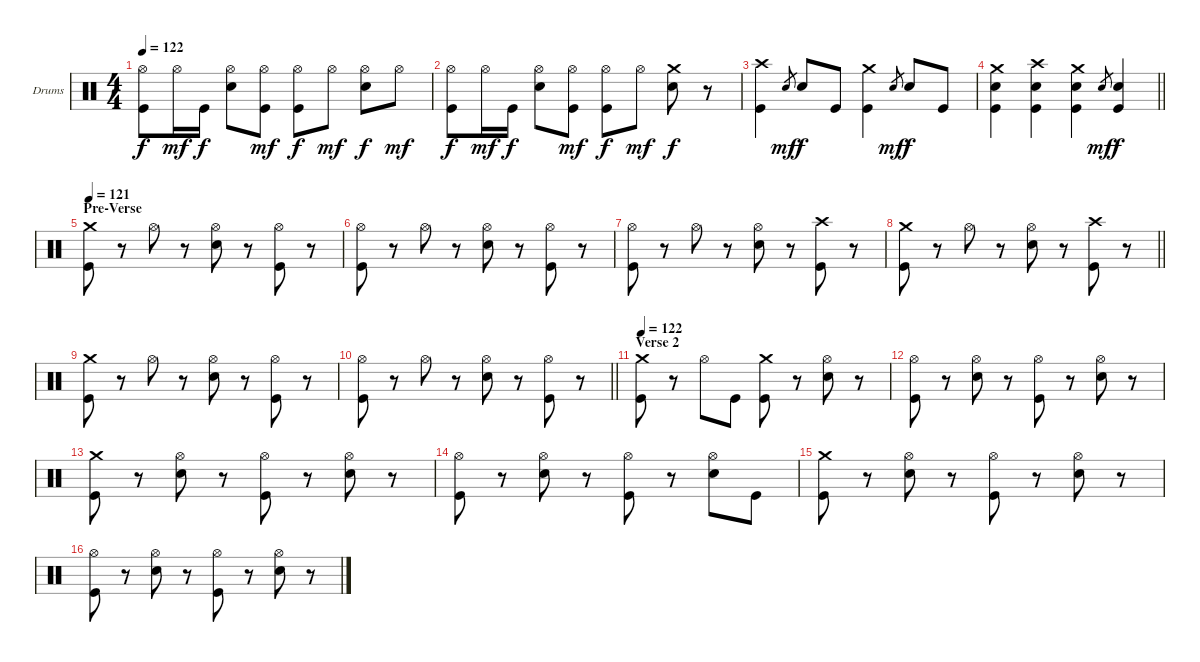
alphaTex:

\bracketExtendMode groupsimilarinstruments
\firstSystemTrackNameOrientation horizontal
\otherSystemsTrackNameOrientation horizontal
\track ("Drumkit" "Drums") {instrument percussion}
\staff {score}
\articulation defaults
\ts (4 4)
\tempo 122
\clef neutral
\ks c
("Hi-Hat (open)" "Kick (hit)").8{dy f} "Hi-Hat (open)".16{dy mf} "Kick (hit)".16{dy f} ("Hi-Hat (open)" "Snare (hit) 2").8 ("Hi-Hat (open)" "Kick (hit)").8{dy mf} ("Hi-Hat (open)" "Kick (hit)").8{dy f} "Hi-Hat (open)".8{dy mf} ("Hi-Hat (open)" "Snare (hit) 2").8{dy f} "Hi-Hat (open)".8{dy mf} |
("Hi-Hat (open)" "Kick (hit)").8{dy f} "Hi-Hat (open)".16{dy mf} "Kick (hit)".16{dy f} ("Hi-Hat (open)" "Snare (hit) 2").8 ("Hi-Hat (open)" "Kick (hit)").8{dy mf} ("Hi-Hat (open)" "Kick (hit)").8{dy f} "Hi-Hat (open)".8{dy mf} ("Crash medium (hit)" "Snare (hit) 2").8{dy f} r.8 |
("Crash high (hit)" "Kick (hit)").4 "Snare (hit) 2".8{gr dy mf} "Snare (hit) 2".8{dy f} "Kick (hit)".8 ("Crash medium (hit)" "Kick (hit)").4 "Snare (hit) 2".8{gr dy mf} "Snare (hit) 2".8{dy f} "Kick (hit)".8 |
\barLineRight lightlight
("Crash medium (hit)" "Snare (hit) 2" "Kick (hit)").4 ("Crash high (hit)" "Snare (hit) 2" "Kick (hit)").4 ("Crash medium (hit)" "Snare (hit) 2" "Kick (hit)").4 "Snare (hit) 2".8{gr dy mf} ("Snare (hit) 2" "Kick (hit)").4{dy f} |
\section ("" "Pre-Verse")
\tempo 121
("Crash medium (hit)" "Kick (hit)").8 r.8 "Hi-Hat (open)".8 r.8 ("Hi-Hat (open)" "Snare (hit) 2").8 r.8 ("Hi-Hat (open)" "Kick (hit)").8 r.8 |
("Hi-Hat (open)" "Kick (hit)").8 r.8 "Hi-Hat (open)".8 r.8 ("Hi-Hat (open)" "Snare (hit) 2").8 r.8 ("Hi-Hat (open)" "Kick (hit)").8 r.8 |
("Hi-Hat (open)" "Kick (hit)").8 r.8 "Hi-Hat (open)".8 r.8 ("Hi-Hat (open)" "Snare (hit) 2").8 r.8 ("Crash high (hit)" "Kick (hit)").8 r.8 |
\barLineRight lightlight
("Crash medium (hit)" "Kick (hit)").8 r.8 "Hi-Hat (open)".8 r.8 ("Hi-Hat (open)" "Snare (hit) 2").8 r.8 ("Crash high (hit)" "Kick (hit)").8 r.8 |
("Crash medium (hit)" "Kick (hit)").8 r.8 "Hi-Hat (open)".8 r.8 ("Hi-Hat (open)" "Snare (hit) 2").8 r.8 ("Hi-Hat (open)" "Kick (hit)").8 r.8 |
\barLineRight lightlight
("Hi-Hat (open)" "Kick (hit)").8 r.8 "Hi-Hat (open)".8 r.8 ("Hi-Hat (open)" "Snare (hit) 2").8 r.8 ("Hi-Hat (open)" "Kick (hit)").8 r.8 |
\section ("" "Verse 2")
\tempo 122
("Crash medium (hit)" "Kick (hit)").8 r.8 "Hi-Hat (open)".8 "Kick (hit)".8 ("Crash medium (hit)" "Kick (hit)").8 r.8 ("Hi-Hat (open)" "Snare (hit) 2").8 r.8 |
("Hi-Hat (open)" "Kick (hit)").8 r.8 ("Hi-Hat (open)" "Snare (hit) 2").8 r.8 ("Hi-Hat (open)" "Kick (hit)").8 r.8 ("Hi-Hat (open)" "Snare (hit) 2").8 r.8 |
("Crash medium (hit)" "Kick (hit)").8 r.8 ("Hi-Hat (open)" "Snare (hit) 2").8 r.8 ("Hi-Hat (open)" "Kick (hit)").8 r.8 ("Hi-Hat (open)" "Snare (hit) 2").8 r.8 |
("Hi-Hat (open)" "Kick (hit)").8 r.8 ("Hi-Hat (open)" "Snare (hit) 2").8 r.8 ("Hi-Hat (open)" "Kick (hit)").8 r.8 ("Hi-Hat (open)" "Snare (hit) 2").8 "Kick (hit)".8 |
("Crash medium (hit)" "Kick (hit)").8 r.8 ("Hi-Hat (open)" "Snare (hit) 2").8 r.8 ("Hi-Hat (open)" "Kick (hit)").8 r.8 ("Hi-Hat (open)" "Snare (hit) 2").8 r.8 |
("Hi-Hat (open)" "Kick (hit)").8 r.8 ("Hi-Hat (open)" "Snare (hit) 2").8 r.8 ("Hi-Hat (open)" "Kick (hit)").8 r.8 ("Hi-Hat (open)" "Snare (hit) 2").8 r.8
